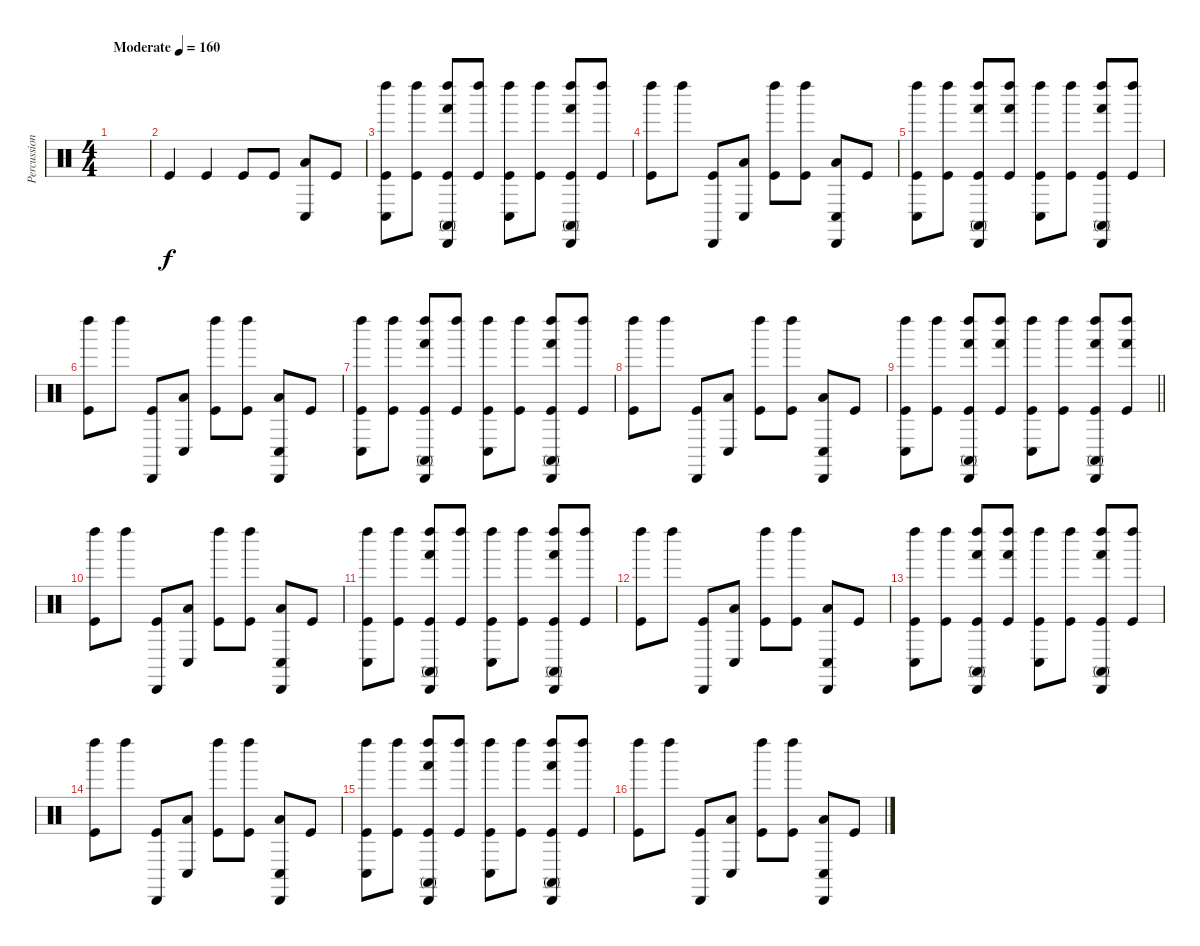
\track ("Percussion" "Percussion") {instrument percussion}
\staff {score}
\articulation defaults
\ts (4 4)
\tempo (160 "Moderate")
\clef neutral
\ks c
|
"Kick (hit)".4 "Kick (hit)".4 "Kick (hit)".8 "Kick (hit)".8 ("Low Floor Tom (hit)" "Conga low (hit)").8 "Kick (hit)".8 |
("Kick (hit)" "Conga low (hit)" "Left Maraca (hit)").8 ("Kick (hit)" "Left Maraca (hit)").8 ("Kick (hit)" "Hand (hit)" "Conga high (mute)" "Left Maraca (hit)" "Cabasa (hit)").8 ("Kick (hit)" "Left Maraca (hit)").8 ("Kick (hit)" "Conga low (hit)" "Left Maraca (hit)").8 ("Kick (hit)" "Left Maraca (hit)").8 ("Kick (hit)" "Hand (hit)" "Conga high (mute)" "Left Maraca (hit)" "Cabasa (hit)").8 ("Kick (hit)" "Left Maraca (hit)").8 |
("Kick (hit)" "Left Maraca (hit)").8 "Left Maraca (hit)".8 ("Kick (hit)" "Cabasa (hit)").8 ("Low Floor Tom (hit)" "Conga low (hit)").8 ("Kick (hit)" "Left Maraca (hit)").8 ("Kick (hit)" "Left Maraca (hit)").8 ("Low Floor Tom (hit)" "Conga low (hit)" "Cabasa (hit)").8 "Kick (hit)".8 |
("Kick (hit)" "Conga low (hit)" "Left Maraca (hit)").8 ("Kick (hit)" "Left Maraca (hit)").8 ("Kick (hit)" "Hand (hit)" "Conga high (mute)" "Left Maraca (hit)" "Cabasa (hit)").8 ("Kick (hit)" "Left Maraca (hit)" "Hand (hit)").8 ("Kick (hit)" "Conga low (hit)" "Left Maraca (hit)").8 ("Kick (hit)" "Left Maraca (hit)").8 ("Kick (hit)" "Hand (hit)" "Conga high (mute)" "Left Maraca (hit)" "Cabasa (hit)").8 ("Kick (hit)" "Left Maraca (hit)").8 |
("Kick (hit)" "Left Maraca (hit)").8 "Left Maraca (hit)".8 ("Kick (hit)" "Cabasa (hit)").8 ("Low Floor Tom (hit)" "Conga low (hit)").8 ("Kick (hit)" "Left Maraca (hit)").8 ("Kick (hit)" "Left Maraca (hit)").8 ("Low Floor Tom (hit)" "Conga low (hit)" "Cabasa (hit)").8 "Kick (hit)".8 |
("Kick (hit)" "Conga low (hit)" "Left Maraca (hit)").8 ("Kick (hit)" "Left Maraca (hit)").8 ("Kick (hit)" "Hand (hit)" "Conga high (mute)" "Left Maraca (hit)" "Cabasa (hit)").8 ("Kick (hit)" "Left Maraca (hit)").8 ("Kick (hit)" "Conga low (hit)" "Left Maraca (hit)").8 ("Kick (hit)" "Left Maraca (hit)").8 ("Kick (hit)" "Hand (hit)" "Conga high (mute)" "Left Maraca (hit)" "Cabasa (hit)").8 ("Kick (hit)" "Left Maraca (hit)").8 |
("Kick (hit)" "Left Maraca (hit)").8 "Left Maraca (hit)".8 ("Kick (hit)" "Cabasa (hit)").8 ("Low Floor Tom (hit)" "Conga low (hit)").8 ("Kick (hit)" "Left Maraca (hit)").8 ("Kick (hit)" "Left Maraca (hit)").8 ("Low Floor Tom (hit)" "Conga low (hit)" "Cabasa (hit)").8 "Kick (hit)".8 |
\barLineRight lightlight
("Kick (hit)" "Conga low (hit)" "Left Maraca (hit)").8 ("Kick (hit)" "Left Maraca (hit)").8 ("Kick (hit)" "Hand (hit)" "Conga high (mute)" "Left Maraca (hit)" "Cabasa (hit)").8 ("Kick (hit)" "Left Maraca (hit)" "Hand (hit)").8 ("Kick (hit)" "Conga low (hit)" "Left Maraca (hit)").8 ("Kick (hit)" "Left Maraca (hit)").8 ("Kick (hit)" "Hand (hit)" "Conga high (mute)" "Left Maraca (hit)" "Cabasa (hit)").8 ("Kick (hit)" "Left Maraca (hit)" "Hand (hit)").8 |
("Kick (hit)" "Left Maraca (hit)").8 "Left Maraca (hit)".8 ("Kick (hit)" "Cabasa (hit)").8 ("Low Floor Tom (hit)" "Conga low (hit)").8 ("Kick (hit)" "Left Maraca (hit)").8 ("Kick (hit)" "Left Maraca (hit)").8 ("Low Floor Tom (hit)" "Conga low (hit)" "Cabasa (hit)").8 "Kick (hit)".8 |
("Kick (hit)" "Conga low (hit)" "Left Maraca (hit)").8 ("Kick (hit)" "Left Maraca (hit)").8 ("Kick (hit)" "Hand (hit)" "Conga high (mute)" "Left Maraca (hit)" "Cabasa (hit)").8 ("Kick (hit)" "Left Maraca (hit)").8 ("Kick (hit)" "Conga low (hit)" "Left Maraca (hit)").8 ("Kick (hit)" "Left Maraca (hit)").8 ("Kick (hit)" "Hand (hit)" "Conga high (mute)" "Left Maraca (hit)" "Cabasa (hit)").8 ("Kick (hit)" "Left Maraca (hit)").8 |
("Kick (hit)" "Left Maraca (hit)").8 "Left Maraca (hit)".8 ("Kick (hit)" "Cabasa (hit)").8 ("Low Floor Tom (hit)" "Conga low (hit)").8 ("Kick (hit)" "Left Maraca (hit)").8 ("Kick (hit)" "Left Maraca (hit)").8 ("Low Floor Tom (hit)" "Conga low (hit)" "Cabasa (hit)").8 "Kick (hit)".8 |
("Kick (hit)" "Conga low (hit)" "Left Maraca (hit)").8 ("Kick (hit)" "Left Maraca (hit)").8 ("Kick (hit)" "Hand (hit)" "Conga high (mute)" "Left Maraca (hit)" "Cabasa (hit)").8 ("Kick (hit)" "Left Maraca (hit)" "Hand (hit)").8 ("Kick (hit)" "Conga low (hit)" "Left Maraca (hit)").8 ("Kick (hit)" "Left Maraca (hit)").8 ("Kick (hit)" "Hand (hit)" "Conga high (mute)" "Left Maraca (hit)" "Cabasa (hit)").8 ("Kick (hit)" "Left Maraca (hit)").8 |
("Kick (hit)" "Left Maraca (hit)").8 "Left Maraca (hit)".8 ("Kick (hit)" "Cabasa (hit)").8 ("Low Floor Tom (hit)" "Conga low (hit)").8 ("Kick (hit)" "Left Maraca (hit)").8 ("Kick (hit)" "Left Maraca (hit)").8 ("Low Floor Tom (hit)" "Conga low (hit)" "Cabasa (hit)").8 "Kick (hit)".8 |
("Kick (hit)" "Conga low (hit)" "Left Maraca (hit)").8 ("Kick (hit)" "Left Maraca (hit)").8 ("Kick (hit)" "Hand (hit)" "Conga high (mute)" "Left Maraca (hit)" "Cabasa (hit)").8 ("Kick (hit)" "Left Maraca (hit)").8 ("Kick (hit)" "Conga low (hit)" "Left Maraca (hit)").8 ("Kick (hit)" "Left Maraca (hit)").8 ("Kick (hit)" "Hand (hit)" "Conga high (mute)" "Left Maraca (hit)" "Cabasa (hit)").8 ("Kick (hit)" "Left Maraca (hit)").8 |
("Kick (hit)" "Left Maraca (hit)").8 "Left Maraca (hit)".8 ("Kick (hit)" "Cabasa (hit)").8 ("Low Floor Tom (hit)" "Conga low (hit)").8 ("Kick (hit)" "Left Maraca (hit)").8 ("Kick (hit)" "Left Maraca (hit)").8 ("Low Floor Tom (hit)" "Conga low (hit)" "Cabasa (hit)").8 "Kick (hit)".8
